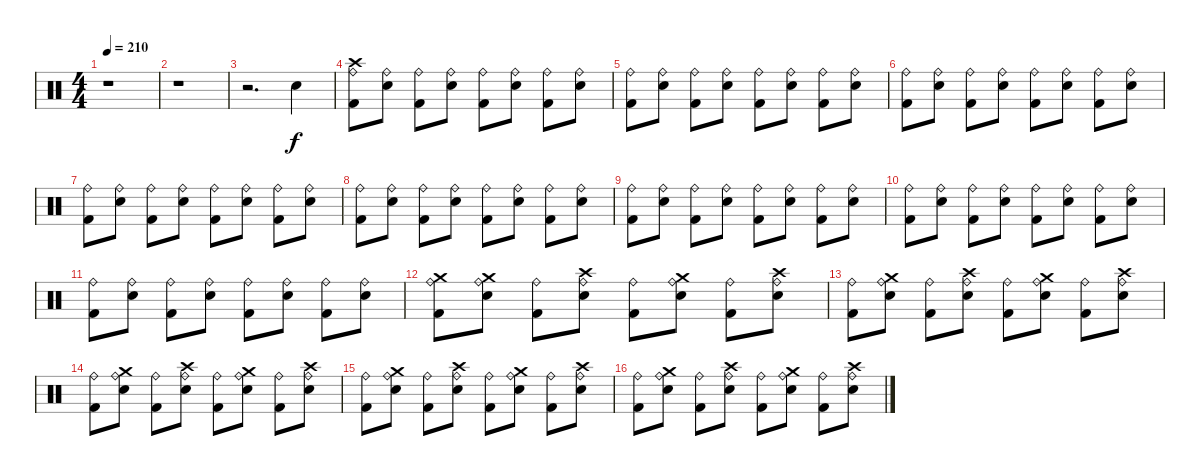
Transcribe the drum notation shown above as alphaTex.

\track "" {instrument percussion}
\staff {score}
\articulation defaults
\ts (4 4)
\tempo 210
\clef neutral
\ks c
r.1{dy f} |
r.1 |
r.2{d} "Electric Snare (hit)".4 |
("Crash high (hit)" "Ride (bell)" "Kick (hit) 2").8 ("Ride (bell)" "Electric Snare (hit)").8 ("Ride (bell)" "Kick (hit) 2").8 ("Ride (bell)" "Electric Snare (hit)").8 ("Ride (bell)" "Kick (hit) 2").8 ("Ride (bell)" "Electric Snare (hit)").8 ("Ride (bell)" "Kick (hit) 2").8 ("Ride (bell)" "Electric Snare (hit)").8 |
("Ride (bell)" "Kick (hit) 2").8 ("Ride (bell)" "Electric Snare (hit)").8 ("Ride (bell)" "Kick (hit) 2").8 ("Ride (bell)" "Electric Snare (hit)").8 ("Ride (bell)" "Kick (hit) 2").8 ("Ride (bell)" "Electric Snare (hit)").8 ("Ride (bell)" "Kick (hit) 2").8 ("Ride (bell)" "Electric Snare (hit)").8 |
("Ride (bell)" "Kick (hit) 2").8 ("Ride (bell)" "Electric Snare (hit)").8 ("Ride (bell)" "Kick (hit) 2").8 ("Ride (bell)" "Electric Snare (hit)").8 ("Ride (bell)" "Kick (hit) 2").8 ("Ride (bell)" "Electric Snare (hit)").8 ("Ride (bell)" "Kick (hit) 2").8 ("Ride (bell)" "Electric Snare (hit)").8 |
("Ride (bell)" "Kick (hit) 2").8 ("Ride (bell)" "Electric Snare (hit)").8 ("Ride (bell)" "Kick (hit) 2").8 ("Ride (bell)" "Electric Snare (hit)").8 ("Ride (bell)" "Kick (hit) 2").8 ("Ride (bell)" "Electric Snare (hit)").8 ("Ride (bell)" "Kick (hit) 2").8 ("Ride (bell)" "Electric Snare (hit)").8 |
("Ride (bell)" "Kick (hit) 2").8 ("Ride (bell)" "Electric Snare (hit)").8 ("Ride (bell)" "Kick (hit) 2").8 ("Ride (bell)" "Electric Snare (hit)").8 ("Ride (bell)" "Kick (hit) 2").8 ("Ride (bell)" "Electric Snare (hit)").8 ("Ride (bell)" "Kick (hit) 2").8 ("Ride (bell)" "Electric Snare (hit)").8 |
("Ride (bell)" "Kick (hit) 2").8 ("Ride (bell)" "Electric Snare (hit)").8 ("Ride (bell)" "Kick (hit) 2").8 ("Ride (bell)" "Electric Snare (hit)").8 ("Ride (bell)" "Kick (hit) 2").8 ("Ride (bell)" "Electric Snare (hit)").8 ("Ride (bell)" "Kick (hit) 2").8 ("Ride (bell)" "Electric Snare (hit)").8 |
("Ride (bell)" "Kick (hit) 2").8 ("Ride (bell)" "Electric Snare (hit)").8 ("Ride (bell)" "Kick (hit) 2").8 ("Ride (bell)" "Electric Snare (hit)").8 ("Ride (bell)" "Kick (hit) 2").8 ("Ride (bell)" "Electric Snare (hit)").8 ("Ride (bell)" "Kick (hit) 2").8 ("Ride (bell)" "Electric Snare (hit)").8 |
("Ride (bell)" "Kick (hit) 2").8 ("Ride (bell)" "Electric Snare (hit)").8 ("Ride (bell)" "Kick (hit) 2").8 ("Ride (bell)" "Electric Snare (hit)").8 ("Ride (bell)" "Kick (hit) 2").8 ("Ride (bell)" "Electric Snare (hit)").8 ("Ride (bell)" "Kick (hit) 2").8 ("Ride (bell)" "Electric Snare (hit)").8 |
("Crash medium (hit)" "Ride (bell)" "Kick (hit) 2").8 ("Crash medium (hit)" "Ride (bell)" "Electric Snare (hit)").8 ("Ride (bell)" "Kick (hit) 2").8 ("Crash high (hit)" "Ride (bell)" "Electric Snare (hit)").8 ("Ride (bell)" "Kick (hit) 2").8 ("Crash medium (hit)" "Ride (bell)" "Electric Snare (hit)").8 ("Ride (bell)" "Kick (hit) 2").8 ("Crash high (hit)" "Ride (bell)" "Electric Snare (hit)").8 |
("Ride (bell)" "Kick (hit) 2").8 ("Crash medium (hit)" "Ride (bell)" "Electric Snare (hit)").8 ("Ride (bell)" "Kick (hit) 2").8 ("Crash high (hit)" "Ride (bell)" "Electric Snare (hit)").8 ("Ride (bell)" "Kick (hit) 2").8 ("Crash medium (hit)" "Ride (bell)" "Electric Snare (hit)").8 ("Ride (bell)" "Kick (hit) 2").8 ("Crash high (hit)" "Ride (bell)" "Electric Snare (hit)").8 |
("Ride (bell)" "Kick (hit) 2").8 ("Crash medium (hit)" "Ride (bell)" "Electric Snare (hit)").8 ("Ride (bell)" "Kick (hit) 2").8 ("Crash high (hit)" "Ride (bell)" "Electric Snare (hit)").8 ("Ride (bell)" "Kick (hit) 2").8 ("Crash medium (hit)" "Ride (bell)" "Electric Snare (hit)").8 ("Ride (bell)" "Kick (hit) 2").8 ("Crash high (hit)" "Ride (bell)" "Electric Snare (hit)").8 |
("Ride (bell)" "Kick (hit) 2").8 ("Crash medium (hit)" "Ride (bell)" "Electric Snare (hit)").8 ("Ride (bell)" "Kick (hit) 2").8 ("Crash high (hit)" "Ride (bell)" "Electric Snare (hit)").8 ("Ride (bell)" "Kick (hit) 2").8 ("Crash medium (hit)" "Ride (bell)" "Electric Snare (hit)").8 ("Ride (bell)" "Kick (hit) 2").8 ("Crash high (hit)" "Ride (bell)" "Electric Snare (hit)").8 |
("Ride (bell)" "Kick (hit) 2").8 ("Crash medium (hit)" "Ride (bell)" "Electric Snare (hit)").8 ("Ride (bell)" "Kick (hit) 2").8 ("Crash high (hit)" "Ride (bell)" "Electric Snare (hit)").8 ("Ride (bell)" "Kick (hit) 2").8 ("Crash medium (hit)" "Ride (bell)" "Electric Snare (hit)").8 ("Ride (bell)" "Kick (hit) 2").8 ("Crash high (hit)" "Ride (bell)" "Electric Snare (hit)").8
